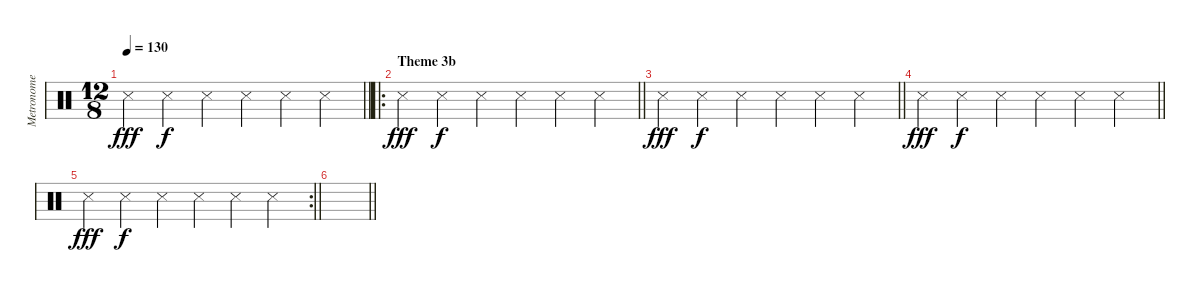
\track ("Metronome" "Metronome") {instrument percussion}
\staff {score}
\articulation defaults
\ts (12 8)
\tempo 130
\clef neutral
\barLineRight lightlight
\ks c "Snare (side stick) 3".4{dy fff} "Snare (side stick) 3".4{dy f} "Snare (side stick) 3".4 "Snare (side stick) 3".4 "Snare (side stick) 3".4 "Snare (side stick) 3".4
|
\ro
\section ("" "Theme 3b")
\barLineRight lightlight "Snare (side stick) 3".4{dy fff} "Snare (side stick) 3".4{dy f} "Snare (side stick) 3".4 "Snare (side stick) 3".4 "Snare (side stick) 3".4 "Snare (side stick) 3".4
|
\barLineRight lightlight "Snare (side stick) 3".4{dy fff} "Snare (side stick) 3".4{dy f} "Snare (side stick) 3".4 "Snare (side stick) 3".4 "Snare (side stick) 3".4 "Snare (side stick) 3".4
|
\barLineRight lightlight "Snare (side stick) 3".4{dy fff} "Snare (side stick) 3".4{dy f} "Snare (side stick) 3".4 "Snare (side stick) 3".4 "Snare (side stick) 3".4 "Snare (side stick) 3".4
|
\rc 2
\barLineRight lightlight "Snare (side stick) 3".4{dy fff} "Snare (side stick) 3".4{dy f} "Snare (side stick) 3".4 "Snare (side stick) 3".4 "Snare (side stick) 3".4 "Snare (side stick) 3".4
|
\barLineRight lightlight
